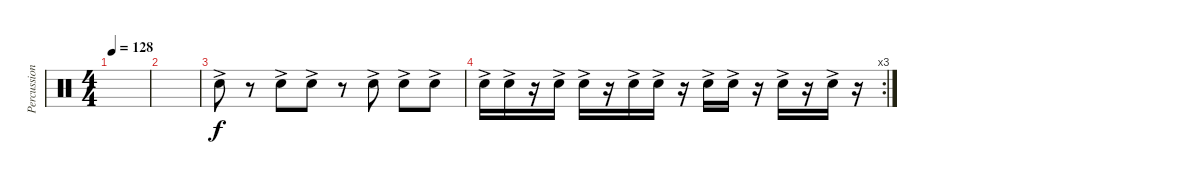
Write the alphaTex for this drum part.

\track ("Percussion" "Percussion") {instrument percussion}
\staff {score}
\articulation defaults
\ts (4 4)
\tempo 128
\clef neutral
\ks c
|
|
"Snare (hit) 2"{ac}.8 r.8 "Snare (hit) 2"{ac}.8 "Snare (hit) 2"{ac}.8 r.8 "Snare (hit) 2"{ac}.8 "Snare (hit) 2"{ac}.8 "Snare (hit) 2"{ac}.8 |
\rc 3 "Snare (hit) 2"{ac}.16 "Snare (hit) 2"{ac}.16
r.16 "Snare (hit) 2"{ac}.16 "Snare (hit) 2"{ac}.16 r.16 "Snare (hit) 2"{ac}.16 "Snare (hit) 2"{ac}.16 r.16 "Snare (hit) 2"{ac}.16 "Snare (hit) 2"{ac}.16 r.16 "Snare (hit) 2"{ac}.16 r.16 "Snare (hit) 2"{ac}.16 r.16
